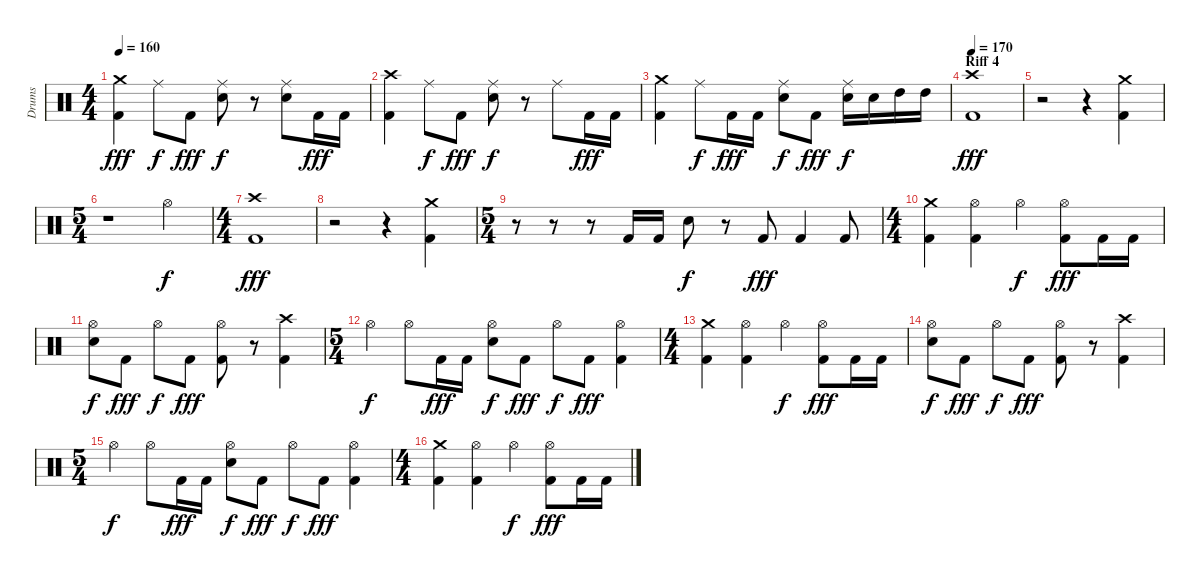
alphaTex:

\track ("Drums" "Drums") {instrument percussion}
\staff {score}
\articulation defaults
\ts (4 4)
\tempo 160
\clef neutral
\ks c
("Crash medium (hit)" "Kick (hit) 2").4{dy fff} "Ride (middle)".8{dy f} "Kick (hit) 2".8{dy fff} ("Ride (middle)" "Electric Snare (hit)").8{dy f} r.8 ("Ride (middle)" "Electric Snare (hit)").8 "Kick (hit) 2".16{dy fff} "Kick (hit) 2".16 |
("Crash high (hit)" "Kick (hit) 2").4 "Ride (middle)".8{dy f} "Kick (hit) 2".8{dy fff} ("Ride (middle)" "Electric Snare (hit)").8{dy f} r.8 "Ride (middle)".8 "Kick (hit) 2".16{dy fff} "Kick (hit) 2".16 |
("Crash medium (hit)" "Kick (hit) 2").4 "Ride (middle)".8{dy f} "Kick (hit) 2".16{dy fff} "Kick (hit) 2".16 ("Ride (middle)" "Electric Snare (hit)").8{dy f} "Kick (hit) 2".8{dy fff} ("Ride (middle)" "Electric Snare (hit)").16{dy f} "Electric Snare (hit)".16 "High Tom (hit)".16 "High Tom (hit)".16 |
\section ("" "Riff 4")
\tempo 170
("Crash high (hit)" "Kick (hit) 2").1{dy fff} |
r.2 r.4 ("Crash medium (hit)" "Kick (hit) 2").4 |
\ts (5 4)
r.1 "Hi-Hat (open)".4{dy f} |
\ts (4 4)
("Crash high (hit)" "Kick (hit) 2").1{dy fff} |
r.2 r.4 ("Crash medium (hit)" "Kick (hit) 2").4 |
\ts (5 4)
r.8 r.8 r.8 "Kick (hit) 2".16 "Kick (hit) 2".16 "Electric Snare (hit)".8{dy f} r.8 "Kick (hit) 2".8{dy fff} "Kick (hit) 2".4 "Kick (hit) 2".8 |
\ts (4 4)
("Crash medium (hit)" "Kick (hit) 2").4 ("Hi-Hat (open)" "Kick (hit) 2").4 "Hi-Hat (open)".4{dy f} ("Hi-Hat (open)" "Kick (hit) 2").8{dy fff} "Kick (hit) 2".16 "Kick (hit) 2".16 |
("Hi-Hat (open)" "Electric Snare (hit)").8{dy f} "Kick (hit) 2".8{dy fff} "Hi-Hat (open)".8{dy f} "Kick (hit) 2".8{dy fff} ("Hi-Hat (open)" "Kick (hit) 2").8 r.8 ("Crash high (hit)" "Kick (hit) 2").4 |
\ts (5 4)
"Hi-Hat (open)".4{dy f} "Hi-Hat (open)".8 "Kick (hit) 2".16{dy fff} "Kick (hit) 2".16 ("Hi-Hat (open)" "Electric Snare (hit)").8{dy f} "Kick (hit) 2".8{dy fff} "Hi-Hat (open)".8{dy f} "Kick (hit) 2".8{dy fff} ("Hi-Hat (open)" "Kick (hit) 2").4 |
\ts (4 4)
("Crash medium (hit)" "Kick (hit) 2").4 ("Hi-Hat (open)" "Kick (hit) 2").4 "Hi-Hat (open)".4{dy f} ("Hi-Hat (open)" "Kick (hit) 2").8{dy fff} "Kick (hit) 2".16 "Kick (hit) 2".16 |
("Hi-Hat (open)" "Electric Snare (hit)").8{dy f} "Kick (hit) 2".8{dy fff} "Hi-Hat (open)".8{dy f} "Kick (hit) 2".8{dy fff} ("Hi-Hat (open)" "Kick (hit) 2").8 r.8 ("Crash high (hit)" "Kick (hit) 2").4 |
\ts (5 4)
"Hi-Hat (open)".4{dy f} "Hi-Hat (open)".8 "Kick (hit) 2".16{dy fff} "Kick (hit) 2".16 ("Hi-Hat (open)" "Electric Snare (hit)").8{dy f} "Kick (hit) 2".8{dy fff} "Hi-Hat (open)".8{dy f} "Kick (hit) 2".8{dy fff} ("Hi-Hat (open)" "Kick (hit) 2").4 |
\ts (4 4)
("Crash medium (hit)" "Kick (hit) 2").4 ("Hi-Hat (open)" "Kick (hit) 2").4 "Hi-Hat (open)".4{dy f} ("Hi-Hat (open)" "Kick (hit) 2").8{dy fff} "Kick (hit) 2".16 "Kick (hit) 2".16
